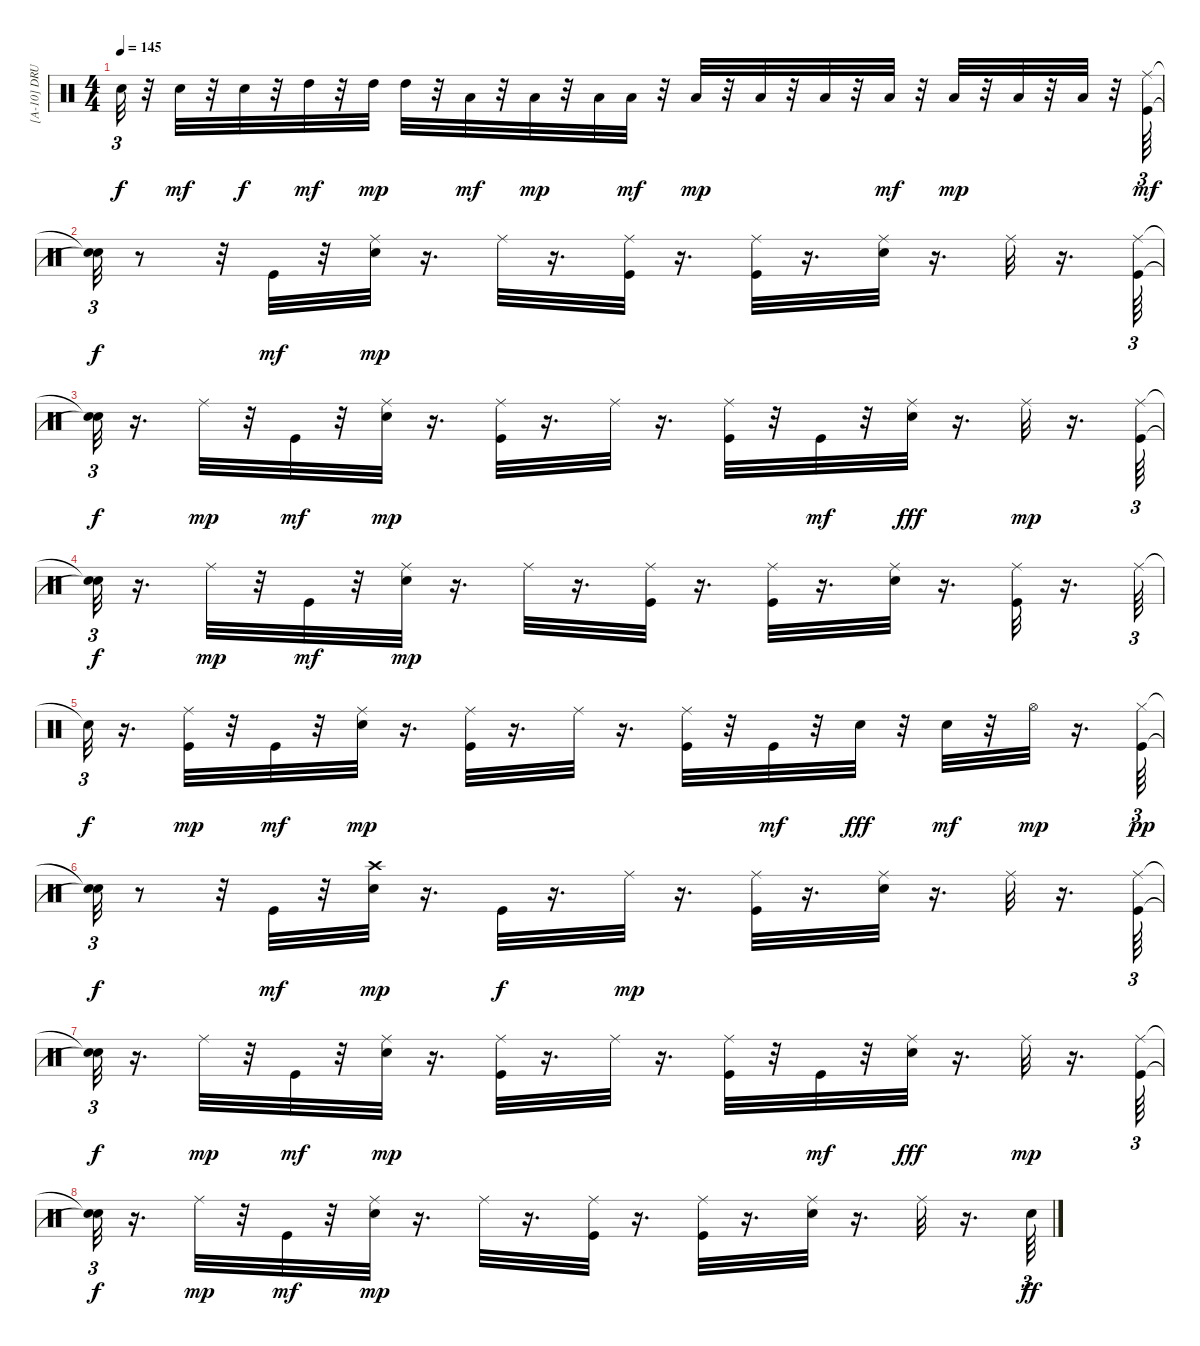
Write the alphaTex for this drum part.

\track ("[A-10] DRUMS" "[A-10] DRU") {instrument percussion}
\staff {score}
\articulation defaults
\ts (4 4)
\tempo 145
\clef neutral
\ks c "Snare (hit)"{t}.32{tu (3 2) dy f}
r.32 "Snare (hit) 2".32{dy mf} r.32 "Snare (hit) 2".32{dy f} r.32 "High Tom (hit)".32{dy mf} r.32 "High Tom (hit)".32{dy mp} "High Tom (hit)".32 r.32 "Low Tom (hit)".32{dy mf} r.32 "Low Tom (hit)".32{dy mp} r.32 "Low Tom (hit)".32 "Low Tom (hit)".32{dy mf} r.32 "Low Tom (hit)".32{dy mp} r.32 "Low Floor Tom (hit)".32 r.32 "Low Floor Tom (hit)".32 r.32 "Low Floor Tom (hit)".32{dy mf} r.32 "Low Floor Tom (hit)".32{dy mp} r.32 "Low Floor Tom (hit)".32 r.32 "Low Floor Tom (hit)".32 r.32 ("Kick (hit)" "Ride (middle)").64{tu (3 2) dy mf} |
("Snare (hit)"{t} "Snare (hit)"{t}).32{tu (3 2) dy f} r.8 r.32 "Kick (hit)".32{dy mf} r.32 ("Snare (hit) 2" "Ride (middle)").32{dy mp} r.16{d} "Ride (middle)".32 r.16{d} ("Kick (hit)" "Ride (middle)").32 r.16{d} ("Kick (hit)" "Ride (middle)").32 r.16{d} ("Snare (hit) 2" "Ride (middle)").32 r.16{d} "Ride (middle)".32 r.16{d} ("Kick (hit)" "Ride (middle)").64{tu (3 2)} |
("Snare (hit)"{t} "Snare (hit)"{t}).32{tu (3 2) dy f} r.16{d} "Ride (middle)".32{dy mp} r.32 "Kick (hit)".32{dy mf} r.32 ("Snare (hit) 2" "Ride (middle)").32{dy mp} r.16{d} ("Kick (hit)" "Ride (middle)").32 r.16{d} "Ride (middle)".32 r.16{d} ("Ride (middle)" "Kick (hit)").32 r.32 "Kick (hit)".32{dy mf} r.32 ("Ride (middle)" "Snare (hit) 2").32{dy fff} r.16{d} "Ride (middle)".32{dy mp} r.16{d} ("Kick (hit)" "Ride (middle)").64{tu (3 2)} |
("Snare (hit)"{t} "Snare (hit)"{t}).32{tu (3 2) dy f} r.16{d} "Ride (middle)".32{dy mp} r.32 "Kick (hit)".32{dy mf} r.32 ("Snare (hit) 2" "Ride (middle)").32{dy mp} r.16{d} "Ride (middle)".32 r.16{d} ("Kick (hit)" "Ride (middle)").32 r.16{d} ("Kick (hit)" "Ride (middle)").32 r.16{d} ("Snare (hit) 2" "Ride (middle)").32 r.16{d} ("Ride (middle)" "Kick (hit)").32 r.16{d} "Ride (middle)".64{tu (3 2)} |
"Snare (hit)"{t}.32{tu (3 2) dy f} r.16{d} ("Ride (middle)" "Kick (hit)").32{dy mp} r.32 "Kick (hit)".32{dy mf} r.32 ("Snare (hit) 2" "Ride (middle)").32{dy mp} r.16{d} ("Kick (hit)" "Ride (middle)").32 r.16{d} "Ride (middle)".32 r.16{d} ("Ride (middle)" "Kick (hit)").32 r.32 "Kick (hit)".32{dy mf} r.32 "Snare (hit) 2".32{dy fff} r.32 "Snare (hit) 2".32{dy mf} r.32 "Hi-Hat (open)".32{dy mp} r.16{d} ("Kick (hit)" "Hi-Hat (closed)").64{tu (3 2) dy pp} |
("Snare (hit)"{t} "Snare (hit)"{t}).32{tu (3 2) dy f} r.8 r.32 "Kick (hit)".32{dy mf} r.32 ("Snare (hit) 2" "Crash high (hit)").32{dy mp} r.16{d} "Kick (hit)".32{dy f} r.16{d} "Ride (middle)".32{dy mp} r.16{d} ("Kick (hit)" "Ride (middle)").32 r.16{d} ("Snare (hit) 2" "Ride (middle)").32 r.16{d} "Ride (middle)".32 r.16{d} ("Kick (hit)" "Ride (middle)").64{tu (3 2)} |
("Snare (hit)"{t} "Snare (hit)"{t}).32{tu (3 2) dy f} r.16{d} "Ride (middle)".32{dy mp} r.32 "Kick (hit)".32{dy mf} r.32 ("Snare (hit) 2" "Ride (middle)").32{dy mp} r.16{d} ("Kick (hit)" "Ride (middle)").32 r.16{d} "Ride (middle)".32 r.16{d} ("Ride (middle)" "Kick (hit)").32 r.32 "Kick (hit)".32{dy mf} r.32 ("Ride (middle)" "Snare (hit) 2").32{dy fff} r.16{d} "Ride (middle)".32{dy mp} r.16{d} ("Kick (hit)" "Ride (middle)").64{tu (3 2)} |
("Snare (hit)"{t} "Snare (hit)"{t}).32{tu (3 2) dy f} r.16{d} "Ride (middle)".32{dy mp} r.32 "Kick (hit)".32{dy mf} r.32 ("Snare (hit) 2" "Ride (middle)").32{dy mp} r.16{d} "Ride (middle)".32 r.16{d} ("Kick (hit)" "Ride (middle)").32 r.16{d} ("Kick (hit)" "Ride (middle)").32 r.16{d} ("Snare (hit) 2" "Ride (middle)").32 r.16{d} "Ride (middle)".32 r.16{d} "Snare (hit) 2".64{tu (3 2) dy ff}
